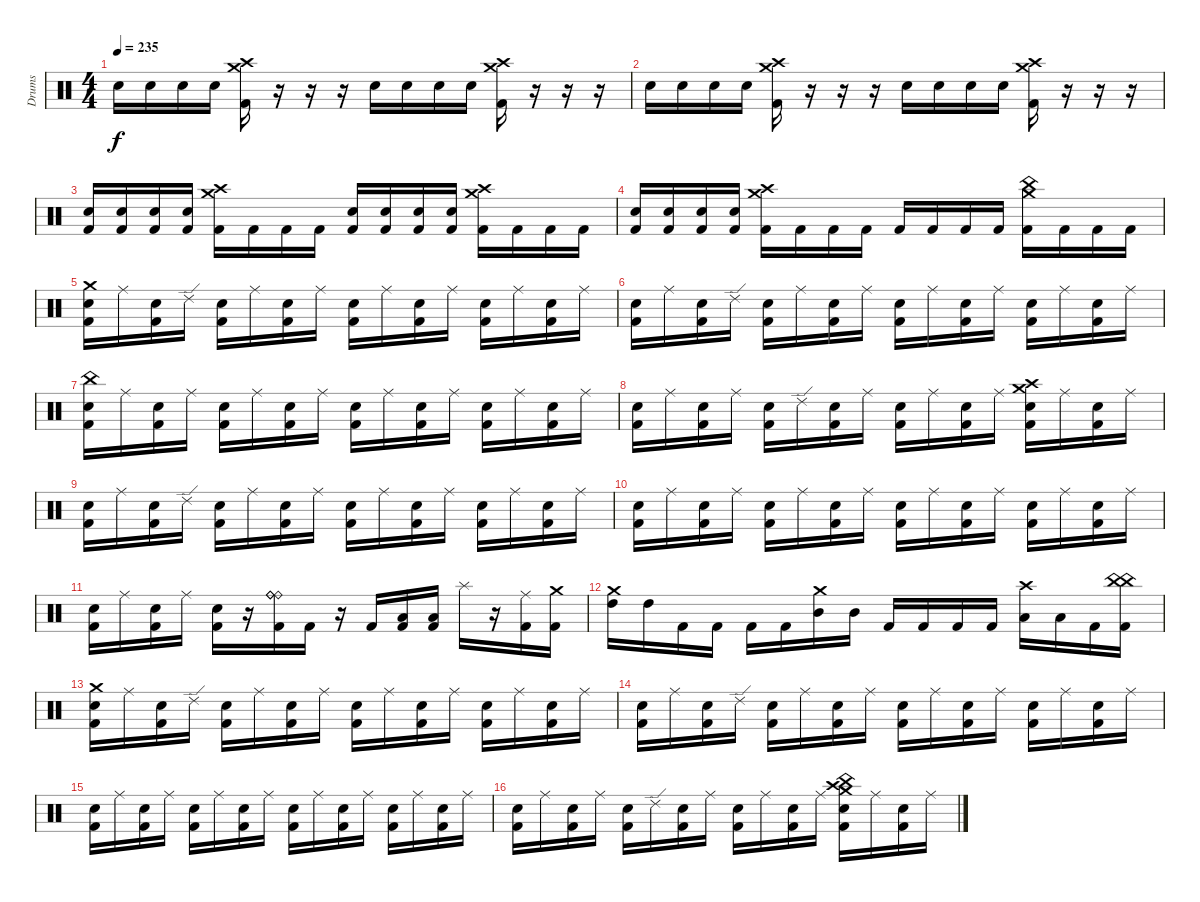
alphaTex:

\track ("Drums" "Drums") {instrument percussion}
\staff {score}
\articulation defaults
\ts (4 4)
\tempo 235
\clef neutral
\ks c "Electric Snare (hit)".16{dy f} "Electric Snare (hit)".16 "Electric Snare (hit)".16 "Electric Snare (hit)".16
("Crash high (hit)" "Crash medium (hit)" "Kick (hit) 2").16 r.16 r.16 r.16 "Electric Snare (hit)".16 "Electric Snare (hit)".16 "Electric Snare (hit)".16 "Electric Snare (hit)".16 ("Crash high (hit)" "Crash medium (hit)" "Kick (hit) 2").16 r.16 r.16 r.16 |
"Electric Snare (hit)".16 "Electric Snare (hit)".16 "Electric Snare (hit)".16 "Electric Snare (hit)".16 ("Crash high (hit)" "Crash medium (hit)" "Kick (hit) 2").16 r.16 r.16 r.16 "Electric Snare (hit)".16 "Electric Snare (hit)".16 "Electric Snare (hit)".16 "Electric Snare (hit)".16 ("Crash high (hit)" "Crash medium (hit)" "Kick (hit) 2").16 r.16 r.16 r.16 |
("Electric Snare (hit)" "Kick (hit) 2").16 ("Electric Snare (hit)" "Kick (hit) 2").16 ("Electric Snare (hit)" "Kick (hit) 2").16 ("Electric Snare (hit)" "Kick (hit) 2").16 ("Crash high (hit)" "Crash medium (hit)" "Kick (hit) 2").16 "Kick (hit) 2".16 "Kick (hit) 2".16 "Kick (hit) 2".16 ("Electric Snare (hit)" "Kick (hit) 2").16 ("Electric Snare (hit)" "Kick (hit) 2").16 ("Electric Snare (hit)" "Kick (hit) 2").16 ("Electric Snare (hit)" "Kick (hit) 2").16 ("Crash high (hit)" "Crash medium (hit)" "Kick (hit) 2").16 "Kick (hit) 2".16 "Kick (hit) 2".16 "Kick (hit) 2".16 |
("Electric Snare (hit)" "Kick (hit) 2").16 ("Electric Snare (hit)" "Kick (hit) 2").16 ("Electric Snare (hit)" "Kick (hit) 2").16 ("Electric Snare (hit)" "Kick (hit) 2").16 ("Crash high (hit)" "Crash medium (hit)" "Kick (hit) 2").16 "Kick (hit) 2".16 "Kick (hit) 2".16 "Kick (hit) 2".16 "Kick (hit) 2".16 "Kick (hit) 2".16 "Kick (hit) 2".16 "Kick (hit) 2".16 ("Crash medium (hit)" "China (hit)" "Kick (hit) 2").16 "Kick (hit) 2".16 "Kick (hit) 2".16 "Kick (hit) 2".16 |
("Crash medium (hit)" "Electric Snare (hit)" "Kick (hit) 2").16 "Ride (middle)".16 ("Electric Snare (hit)" "Kick (hit) 2").16 "Ride (edge) 2".16 ("Electric Snare (hit)" "Kick (hit) 2").16 "Ride (middle)".16 ("Electric Snare (hit)" "Kick (hit) 2").16 "Ride (middle)".16 ("Electric Snare (hit)" "Kick (hit) 2").16 "Ride (middle)".16 ("Electric Snare (hit)" "Kick (hit) 2").16 "Ride (middle)".16 ("Electric Snare (hit)" "Kick (hit) 2").16 "Ride (middle)".16 ("Electric Snare (hit)" "Kick (hit) 2").16 "Ride (middle)".16 |
("Electric Snare (hit)" "Kick (hit) 2").16 "Ride (middle)".16 ("Electric Snare (hit)" "Kick (hit) 2").16 "Ride (edge) 2".16 ("Electric Snare (hit)" "Kick (hit) 2").16 "Ride (middle)".16 ("Electric Snare (hit)" "Kick (hit) 2").16 "Ride (middle)".16 ("Electric Snare (hit)" "Kick (hit) 2").16 "Ride (middle)".16 ("Electric Snare (hit)" "Kick (hit) 2").16 "Ride (middle)".16 ("Electric Snare (hit)" "Kick (hit) 2").16 "Ride (middle)".16 ("Electric Snare (hit)" "Kick (hit) 2").16 "Ride (middle)".16 |
("China (hit)" "Electric Snare (hit)" "Kick (hit) 2").16 "Ride (middle)".16 ("Electric Snare (hit)" "Kick (hit) 2").16 "Ride (middle)".16 ("Electric Snare (hit)" "Kick (hit) 2").16 "Ride (middle)".16 ("Electric Snare (hit)" "Kick (hit) 2").16 "Ride (middle)".16 ("Electric Snare (hit)" "Kick (hit) 2").16 "Ride (middle)".16 ("Electric Snare (hit)" "Kick (hit) 2").16 "Ride (middle)".16 ("Electric Snare (hit)" "Kick (hit) 2").16 "Ride (middle)".16 ("Electric Snare (hit)" "Kick (hit) 2").16 "Ride (middle)".16 |
("Electric Snare (hit)" "Kick (hit) 2").16 "Ride (middle)".16 ("Electric Snare (hit)" "Kick (hit) 2").16 "Ride (middle)".16 ("Electric Snare (hit)" "Kick (hit) 2").16 "Ride (edge) 2".16 ("Electric Snare (hit)" "Kick (hit) 2").16 "Ride (middle)".16 ("Electric Snare (hit)" "Kick (hit) 2").16 "Ride (middle)".16 ("Electric Snare (hit)" "Kick (hit) 2").16 "Ride (middle)".16 ("Crash high (hit)" "Crash medium (hit)" "Electric Snare (hit)" "Kick (hit) 2").16 "Ride (middle)".16 ("Electric Snare (hit)" "Kick (hit) 2").16 "Ride (middle)".16 |
("Electric Snare (hit)" "Kick (hit) 2").16 "Ride (middle)".16 ("Electric Snare (hit)" "Kick (hit) 2").16 "Ride (edge) 2".16 ("Electric Snare (hit)" "Kick (hit) 2").16 "Ride (middle)".16 ("Electric Snare (hit)" "Kick (hit) 2").16 "Ride (middle)".16 ("Electric Snare (hit)" "Kick (hit) 2").16 "Ride (middle)".16 ("Electric Snare (hit)" "Kick (hit) 2").16 "Ride (middle)".16 ("Electric Snare (hit)" "Kick (hit) 2").16 "Ride (middle)".16 ("Electric Snare (hit)" "Kick (hit) 2").16 "Ride (middle)".16 |
("Electric Snare (hit)" "Kick (hit) 2").16 "Ride (middle)".16 ("Electric Snare (hit)" "Kick (hit) 2").16 "Ride (middle)".16 ("Electric Snare (hit)" "Kick (hit) 2").16 "Ride (middle)".16 ("Electric Snare (hit)" "Kick (hit) 2").16 "Ride (middle)".16 ("Electric Snare (hit)" "Kick (hit) 2").16 "Ride (middle)".16 ("Electric Snare (hit)" "Kick (hit) 2").16 "Ride (middle)".16 ("Electric Snare (hit)" "Kick (hit) 2").16 "Ride (middle)".16 ("Electric Snare (hit)" "Kick (hit) 2").16 "Ride (middle)".16 |
("Electric Snare (hit)" "Kick (hit) 2").16 "Ride (middle)".16 ("Electric Snare (hit)" "Kick (hit) 2").16 "Ride (middle)".16 ("Electric Snare (hit)" "Kick (hit) 2").16 r.16 ("Ride (bell)" "Ride (bell)" "Ride (bell)" "Kick (hit) 2").16 "Kick (hit) 2".16 r.16 "Kick (hit) 2".16 ("Low Tom (hit)" "Kick (hit) 2").16 ("Low Tom (hit)" "Kick (hit) 2").16 "Splash (hit)".16 r.16 ("Ride (middle)" "Kick (hit) 2").16 ("Crash medium (hit)" "Kick (hit) 2").16 |
("Crash medium (hit)" "High Tom (hit)").16 "High Tom (hit)".16 "Kick (hit) 2".16 "Kick (hit) 2".16 "Kick (hit) 2".16 "Kick (hit) 2".16 ("Crash medium (hit)" "Mid Tom (hit)").16 "Mid Tom (hit)".16 "Kick (hit) 2".16 "Kick (hit) 2".16 "Kick (hit) 2".16 "Kick (hit) 2".16 ("Crash high (hit)" "Low Tom (hit)").16 "Low Tom (hit)".16 "Kick (hit) 2".16 ("China (hit)" "China (hit)" "Kick (hit) 2").16 |
("Crash medium (hit)" "Electric Snare (hit)" "Kick (hit) 2").16 "Ride (middle)".16 ("Electric Snare (hit)" "Kick (hit) 2").16 "Ride (edge) 2".16 ("Electric Snare (hit)" "Kick (hit) 2").16 "Ride (middle)".16 ("Electric Snare (hit)" "Kick (hit) 2").16 "Ride (middle)".16 ("Electric Snare (hit)" "Kick (hit) 2").16 "Ride (middle)".16 ("Electric Snare (hit)" "Kick (hit) 2").16 "Ride (middle)".16 ("Electric Snare (hit)" "Kick (hit) 2").16 "Ride (middle)".16 ("Electric Snare (hit)" "Kick (hit) 2").16 "Ride (middle)".16 |
("Electric Snare (hit)" "Kick (hit) 2").16 "Ride (middle)".16 ("Electric Snare (hit)" "Kick (hit) 2").16 "Ride (edge) 2".16 ("Electric Snare (hit)" "Kick (hit) 2").16 "Ride (middle)".16 ("Electric Snare (hit)" "Kick (hit) 2").16 "Ride (middle)".16 ("Electric Snare (hit)" "Kick (hit) 2").16 "Ride (middle)".16 ("Electric Snare (hit)" "Kick (hit) 2").16 "Ride (middle)".16 ("Electric Snare (hit)" "Kick (hit) 2").16 "Ride (middle)".16 ("Electric Snare (hit)" "Kick (hit) 2").16 "Ride (middle)".16 |
("Electric Snare (hit)" "Kick (hit) 2").16 "Ride (middle)".16 ("Electric Snare (hit)" "Kick (hit) 2").16 "Ride (middle)".16 ("Electric Snare (hit)" "Kick (hit) 2").16 "Ride (middle)".16 ("Electric Snare (hit)" "Kick (hit) 2").16 "Ride (middle)".16 ("Electric Snare (hit)" "Kick (hit) 2").16 "Ride (middle)".16 ("Electric Snare (hit)" "Kick (hit) 2").16 "Ride (middle)".16 ("Electric Snare (hit)" "Kick (hit) 2").16 "Ride (middle)".16 ("Electric Snare (hit)" "Kick (hit) 2").16 "Ride (middle)".16 |
("Electric Snare (hit)" "Kick (hit) 2").16 "Ride (middle)".16 ("Electric Snare (hit)" "Kick (hit) 2").16 "Ride (middle)".16 ("Electric Snare (hit)" "Kick (hit) 2").16 "Ride (edge) 2".16 ("Electric Snare (hit)" "Kick (hit) 2").16 "Ride (middle)".16 ("Electric Snare (hit)" "Kick (hit) 2").16 "Ride (middle)".16 ("Electric Snare (hit)" "Kick (hit) 2").16 "Ride (middle)".16 ("Crash high (hit)" "Crash medium (hit)" "China (hit)" "Electric Snare (hit)" "Kick (hit) 2").16 "Ride (middle)".16 ("Electric Snare (hit)" "Kick (hit) 2").16 "Ride (middle)".16
